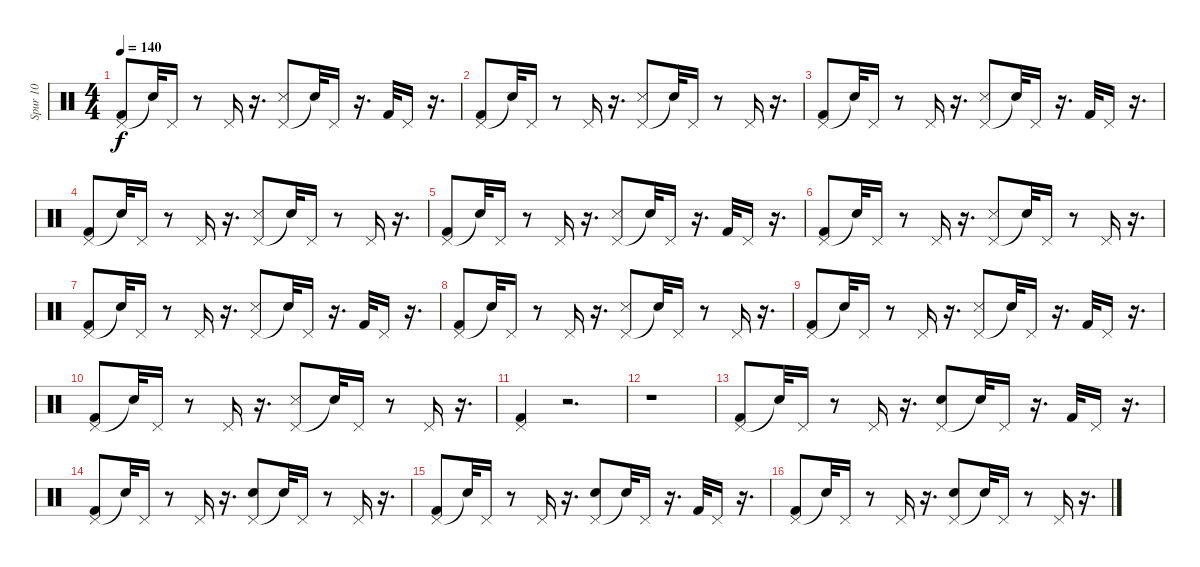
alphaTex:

\track ("Spur 10" "Spur 10") {instrument percussion}
\staff {score}
\articulation defaults
\ts (4 4)
\tempo 140
\clef neutral
\ks c
("Pedal Hi-Hat (hit)" "Kick (hit) 2").8{dy f} "Snare (hit)"{t}.32 "Pedal Hi-Hat (hit)".16 r.8 "Pedal Hi-Hat (hit)".16 r.16{d} ("Pedal Hi-Hat (hit)" "Snare (side stick) 3").8 "Snare (hit)"{t}.32 "Pedal Hi-Hat (hit)".16 r.16{d} "Kick (hit) 2".32 "Pedal Hi-Hat (hit)".16 r.16{d} |
("Pedal Hi-Hat (hit)" "Kick (hit) 2").8 "Snare (hit)"{t}.32 "Pedal Hi-Hat (hit)".16 r.8 "Pedal Hi-Hat (hit)".16 r.16{d} ("Pedal Hi-Hat (hit)" "Snare (side stick) 3").8 "Snare (hit)"{t}.32 "Pedal Hi-Hat (hit)".16 r.8 "Pedal Hi-Hat (hit)".16 r.16{d} |
("Pedal Hi-Hat (hit)" "Kick (hit) 2").8 "Snare (hit)"{t}.32 "Pedal Hi-Hat (hit)".16 r.8 "Pedal Hi-Hat (hit)".16 r.16{d} ("Pedal Hi-Hat (hit)" "Snare (side stick) 3").8 "Snare (hit)"{t}.32 "Pedal Hi-Hat (hit)".16 r.16{d} "Kick (hit) 2".32 "Pedal Hi-Hat (hit)".16 r.16{d} |
("Pedal Hi-Hat (hit)" "Kick (hit) 2").8 "Snare (hit)"{t}.32 "Pedal Hi-Hat (hit)".16 r.8 "Pedal Hi-Hat (hit)".16 r.16{d} ("Pedal Hi-Hat (hit)" "Snare (side stick) 3").8 "Snare (hit)"{t}.32 "Pedal Hi-Hat (hit)".16 r.8 "Pedal Hi-Hat (hit)".16 r.16{d} |
("Pedal Hi-Hat (hit)" "Kick (hit) 2").8 "Snare (hit)"{t}.32 "Pedal Hi-Hat (hit)".16 r.8 "Pedal Hi-Hat (hit)".16 r.16{d} ("Pedal Hi-Hat (hit)" "Snare (side stick) 3").8 "Snare (hit)"{t}.32 "Pedal Hi-Hat (hit)".16 r.16{d} "Kick (hit) 2".32 "Pedal Hi-Hat (hit)".16 r.16{d} |
("Pedal Hi-Hat (hit)" "Kick (hit) 2").8 "Snare (hit)"{t}.32 "Pedal Hi-Hat (hit)".16 r.8 "Pedal Hi-Hat (hit)".16 r.16{d} ("Pedal Hi-Hat (hit)" "Snare (side stick) 3").8 "Snare (hit)"{t}.32 "Pedal Hi-Hat (hit)".16 r.8 "Pedal Hi-Hat (hit)".16 r.16{d} |
("Pedal Hi-Hat (hit)" "Kick (hit) 2").8 "Snare (hit)"{t}.32 "Pedal Hi-Hat (hit)".16 r.8 "Pedal Hi-Hat (hit)".16 r.16{d} ("Pedal Hi-Hat (hit)" "Snare (side stick) 3").8 "Snare (hit)"{t}.32 "Pedal Hi-Hat (hit)".16 r.16{d} "Kick (hit) 2".32 "Pedal Hi-Hat (hit)".16 r.16{d} |
("Pedal Hi-Hat (hit)" "Kick (hit) 2").8 "Snare (hit)"{t}.32 "Pedal Hi-Hat (hit)".16 r.8 "Pedal Hi-Hat (hit)".16 r.16{d} ("Pedal Hi-Hat (hit)" "Snare (side stick) 3").8 "Snare (hit)"{t}.32 "Pedal Hi-Hat (hit)".16 r.8 "Pedal Hi-Hat (hit)".16 r.16{d} |
("Pedal Hi-Hat (hit)" "Kick (hit) 2").8 "Snare (hit)"{t}.32 "Pedal Hi-Hat (hit)".16 r.8 "Pedal Hi-Hat (hit)".16 r.16{d} ("Pedal Hi-Hat (hit)" "Snare (side stick) 3").8 "Snare (hit)"{t}.32 "Pedal Hi-Hat (hit)".16 r.16{d} "Kick (hit) 2".32 "Pedal Hi-Hat (hit)".16 r.16{d} |
("Pedal Hi-Hat (hit)" "Kick (hit) 2").8 "Snare (hit)"{t}.32 "Pedal Hi-Hat (hit)".16 r.8 "Pedal Hi-Hat (hit)".16 r.16{d} ("Pedal Hi-Hat (hit)" "Snare (side stick) 3").8 "Snare (hit)"{t}.32 "Pedal Hi-Hat (hit)".16 r.8 "Pedal Hi-Hat (hit)".16 r.16{d} |
("Pedal Hi-Hat (hit)" "Kick (hit) 2").4 r.2{d} |
r.1 |
("Pedal Hi-Hat (hit)" "Kick (hit) 2").8 "Snare (hit)"{t}.32 "Pedal Hi-Hat (hit)".16 r.8 "Pedal Hi-Hat (hit)".16 r.16{d} ("Pedal Hi-Hat (hit)" "Snare (hit) 2").8 "Snare (hit)"{t}.32 "Pedal Hi-Hat (hit)".16 r.16{d} "Kick (hit) 2".32 "Pedal Hi-Hat (hit)".16 r.16{d} |
("Pedal Hi-Hat (hit)" "Kick (hit) 2").8 "Snare (hit)"{t}.32 "Pedal Hi-Hat (hit)".16 r.8 "Pedal Hi-Hat (hit)".16 r.16{d} ("Pedal Hi-Hat (hit)" "Snare (hit) 2").8 "Snare (hit)"{t}.32 "Pedal Hi-Hat (hit)".16 r.8 "Pedal Hi-Hat (hit)".16 r.16{d} |
("Pedal Hi-Hat (hit)" "Kick (hit) 2").8 "Snare (hit)"{t}.32 "Pedal Hi-Hat (hit)".16 r.8 "Pedal Hi-Hat (hit)".16 r.16{d} ("Pedal Hi-Hat (hit)" "Snare (hit) 2").8 "Snare (hit)"{t}.32 "Pedal Hi-Hat (hit)".16 r.16{d} "Kick (hit) 2".32 "Pedal Hi-Hat (hit)".16 r.16{d} |
("Pedal Hi-Hat (hit)" "Kick (hit) 2").8 "Snare (hit)"{t}.32 "Pedal Hi-Hat (hit)".16 r.8 "Pedal Hi-Hat (hit)".16 r.16{d} ("Pedal Hi-Hat (hit)" "Snare (hit) 2").8 "Snare (hit)"{t}.32 "Pedal Hi-Hat (hit)".16 r.8 "Pedal Hi-Hat (hit)".16 r.16{d}
